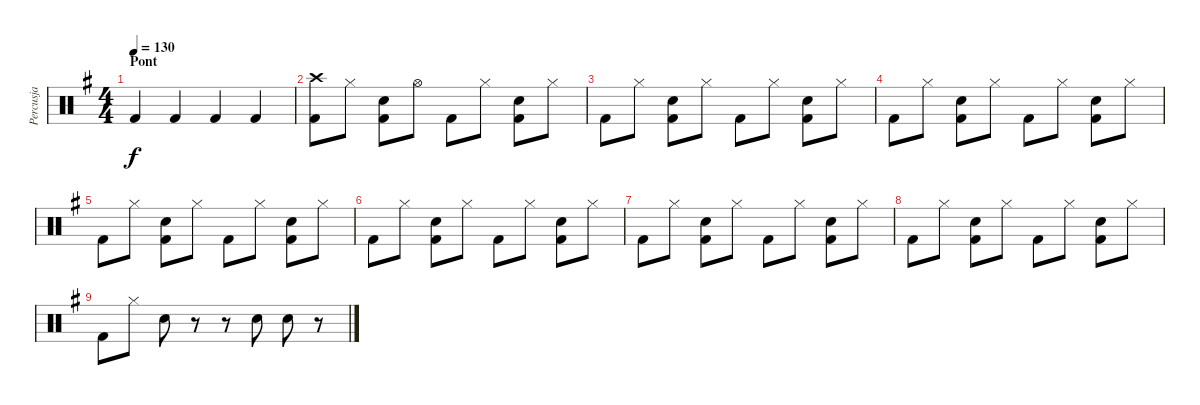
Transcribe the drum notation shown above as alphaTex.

\track ("Percusja" "Percusja") {instrument percussion}
\staff {score}
\articulation defaults
\ts (4 4)
\section ("" "Pont")
\tempo 130
\clef neutral
\ks g "Kick (hit) 2".4{dy f} "Kick (hit) 2".4 "Kick (hit) 2".4 "Kick (hit) 2".4
|
("Crash high (hit)" "Kick (hit) 2").8 "Hi-Hat (closed)".8 ("Hand Clap (hit)" "Kick (hit) 2").8 "Hi-Hat (open)".8 "Kick (hit) 2".8 "Hi-Hat (closed)".8 ("Hand Clap (hit)" "Kick (hit) 2").8 "Hi-Hat (closed)".8 |
"Kick (hit) 2".8 "Hi-Hat (closed)".8 ("Hand Clap (hit)" "Kick (hit) 2").8 "Hi-Hat (closed)".8 "Kick (hit) 2".8 "Hi-Hat (closed)".8 ("Hand Clap (hit)" "Kick (hit) 2").8 "Hi-Hat (closed)".8 |
"Kick (hit) 2".8 "Hi-Hat (closed)".8 ("Hand Clap (hit)" "Kick (hit) 2").8 "Hi-Hat (closed)".8 "Kick (hit) 2".8 "Hi-Hat (closed)".8 ("Hand Clap (hit)" "Kick (hit) 2").8 "Hi-Hat (closed)".8 |
"Kick (hit) 2".8 "Hi-Hat (closed)".8 ("Hand Clap (hit)" "Kick (hit) 2").8 "Hi-Hat (closed)".8 "Kick (hit) 2".8 "Hi-Hat (closed)".8 ("Hand Clap (hit)" "Kick (hit) 2").8 "Hi-Hat (closed)".8 |
"Kick (hit) 2".8 "Hi-Hat (closed)".8 ("Hand Clap (hit)" "Kick (hit) 2").8 "Hi-Hat (closed)".8 "Kick (hit) 2".8 "Hi-Hat (closed)".8 ("Hand Clap (hit)" "Kick (hit) 2").8 "Hi-Hat (closed)".8 |
"Kick (hit) 2".8 "Hi-Hat (closed)".8 ("Hand Clap (hit)" "Kick (hit) 2").8 "Hi-Hat (closed)".8 "Kick (hit) 2".8 "Hi-Hat (closed)".8 ("Hand Clap (hit)" "Kick (hit) 2").8 "Hi-Hat (closed)".8 |
"Kick (hit) 2".8 "Hi-Hat (closed)".8 ("Hand Clap (hit)" "Kick (hit) 2").8 "Hi-Hat (closed)".8 "Kick (hit) 2".8 "Hi-Hat (closed)".8 ("Hand Clap (hit)" "Kick (hit) 2").8 "Hi-Hat (closed)".8 |
"Kick (hit) 2".8 "Hi-Hat (closed)".8 "Hand Clap (hit)".8 r.8 r.8 "Hand Clap (hit)".8 "Hand Clap (hit)".8 r.8
